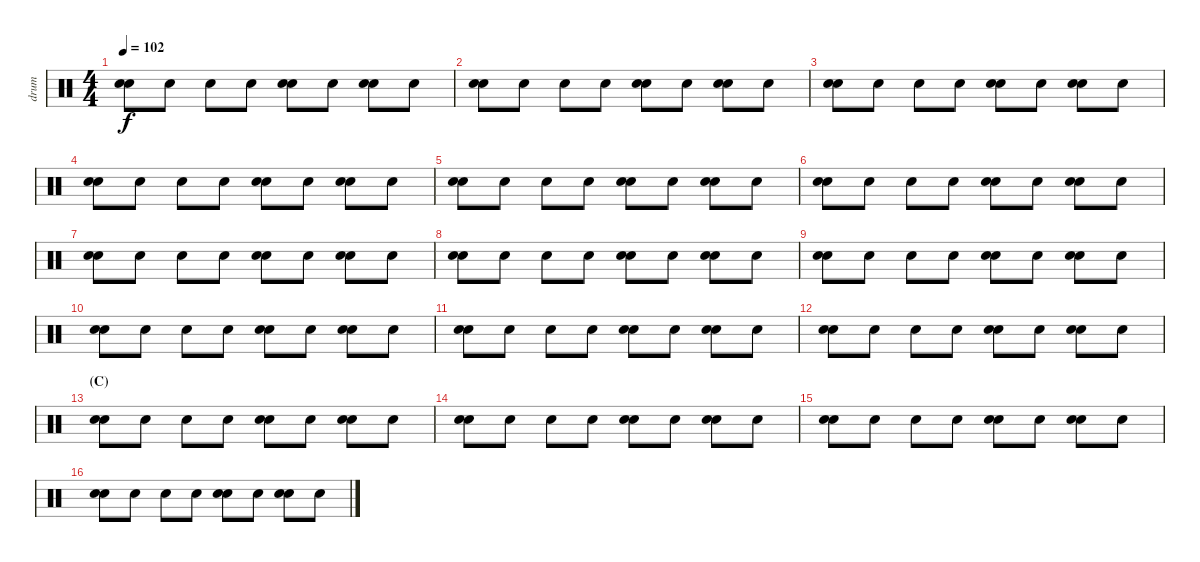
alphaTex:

\track ("drum" "drum") {instrument percussion}
\staff {score}
\articulation defaults
\ts (4 4)
\tempo 102
\clef neutral
\ks c
("Snare (hit) 2" "Electric Snare (hit)").8{dy f} "Electric Snare (hit)".8 "Electric Snare (hit)".8 "Electric Snare (hit)".8 ("Snare (hit) 2" "Electric Snare (hit)").8 "Electric Snare (hit)".8 ("Snare (hit) 2" "Electric Snare (hit)").8 "Electric Snare (hit)".8 |
("Snare (hit) 2" "Electric Snare (hit)").8 "Electric Snare (hit)".8 "Electric Snare (hit)".8 "Electric Snare (hit)".8 ("Snare (hit) 2" "Electric Snare (hit)").8 "Electric Snare (hit)".8 ("Snare (hit) 2" "Electric Snare (hit)").8 "Electric Snare (hit)".8 |
("Snare (hit) 2" "Electric Snare (hit)").8 "Electric Snare (hit)".8 "Electric Snare (hit)".8 "Electric Snare (hit)".8 ("Snare (hit) 2" "Electric Snare (hit)").8 "Electric Snare (hit)".8 ("Snare (hit) 2" "Electric Snare (hit)").8 "Electric Snare (hit)".8 |
("Snare (hit) 2" "Electric Snare (hit)").8 "Electric Snare (hit)".8 "Electric Snare (hit)".8 "Electric Snare (hit)".8 ("Snare (hit) 2" "Electric Snare (hit)").8 "Electric Snare (hit)".8 ("Snare (hit) 2" "Electric Snare (hit)").8 "Electric Snare (hit)".8 |
("Snare (hit) 2" "Electric Snare (hit)").8 "Electric Snare (hit)".8 "Electric Snare (hit)".8 "Electric Snare (hit)".8 ("Snare (hit) 2" "Electric Snare (hit)").8 "Electric Snare (hit)".8 ("Snare (hit) 2" "Electric Snare (hit)").8 "Electric Snare (hit)".8 |
("Snare (hit) 2" "Electric Snare (hit)").8 "Electric Snare (hit)".8 "Electric Snare (hit)".8 "Electric Snare (hit)".8 ("Snare (hit) 2" "Electric Snare (hit)").8 "Electric Snare (hit)".8 ("Snare (hit) 2" "Electric Snare (hit)").8 "Electric Snare (hit)".8 |
("Snare (hit) 2" "Electric Snare (hit)").8 "Electric Snare (hit)".8 "Electric Snare (hit)".8 "Electric Snare (hit)".8 ("Snare (hit) 2" "Electric Snare (hit)").8 "Electric Snare (hit)".8 ("Snare (hit) 2" "Electric Snare (hit)").8 "Electric Snare (hit)".8 |
("Snare (hit) 2" "Electric Snare (hit)").8 "Electric Snare (hit)".8 "Electric Snare (hit)".8 "Electric Snare (hit)".8 ("Snare (hit) 2" "Electric Snare (hit)").8 "Electric Snare (hit)".8 ("Snare (hit) 2" "Electric Snare (hit)").8 "Electric Snare (hit)".8 |
("Snare (hit) 2" "Electric Snare (hit)").8 "Electric Snare (hit)".8 "Electric Snare (hit)".8 "Electric Snare (hit)".8 ("Snare (hit) 2" "Electric Snare (hit)").8 "Electric Snare (hit)".8 ("Snare (hit) 2" "Electric Snare (hit)").8 "Electric Snare (hit)".8 |
("Snare (hit) 2" "Electric Snare (hit)").8 "Electric Snare (hit)".8 "Electric Snare (hit)".8 "Electric Snare (hit)".8 ("Snare (hit) 2" "Electric Snare (hit)").8 "Electric Snare (hit)".8 ("Snare (hit) 2" "Electric Snare (hit)").8 "Electric Snare (hit)".8 |
("Snare (hit) 2" "Electric Snare (hit)").8 "Electric Snare (hit)".8 "Electric Snare (hit)".8 "Electric Snare (hit)".8 ("Snare (hit) 2" "Electric Snare (hit)").8 "Electric Snare (hit)".8 ("Snare (hit) 2" "Electric Snare (hit)").8 "Electric Snare (hit)".8 |
("Snare (hit) 2" "Electric Snare (hit)").8 "Electric Snare (hit)".8 "Electric Snare (hit)".8 "Electric Snare (hit)".8 ("Snare (hit) 2" "Electric Snare (hit)").8 "Electric Snare (hit)".8 ("Snare (hit) 2" "Electric Snare (hit)").8 "Electric Snare (hit)".8 |
\section ("" "(C)")
("Snare (hit) 2" "Electric Snare (hit)").8 "Electric Snare (hit)".8 "Electric Snare (hit)".8 "Electric Snare (hit)".8 ("Snare (hit) 2" "Electric Snare (hit)").8 "Electric Snare (hit)".8 ("Snare (hit) 2" "Electric Snare (hit)").8 "Electric Snare (hit)".8 |
("Snare (hit) 2" "Electric Snare (hit)").8 "Electric Snare (hit)".8 "Electric Snare (hit)".8 "Electric Snare (hit)".8 ("Snare (hit) 2" "Electric Snare (hit)").8 "Electric Snare (hit)".8 ("Snare (hit) 2" "Electric Snare (hit)").8 "Electric Snare (hit)".8 |
("Snare (hit) 2" "Electric Snare (hit)").8 "Electric Snare (hit)".8 "Electric Snare (hit)".8 "Electric Snare (hit)".8 ("Snare (hit) 2" "Electric Snare (hit)").8 "Electric Snare (hit)".8 ("Snare (hit) 2" "Electric Snare (hit)").8 "Electric Snare (hit)".8 |
("Snare (hit) 2" "Electric Snare (hit)").8 "Electric Snare (hit)".8 "Electric Snare (hit)".8 "Electric Snare (hit)".8 ("Snare (hit) 2" "Electric Snare (hit)").8 "Electric Snare (hit)".8 ("Snare (hit) 2" "Electric Snare (hit)").8 "Electric Snare (hit)".8
